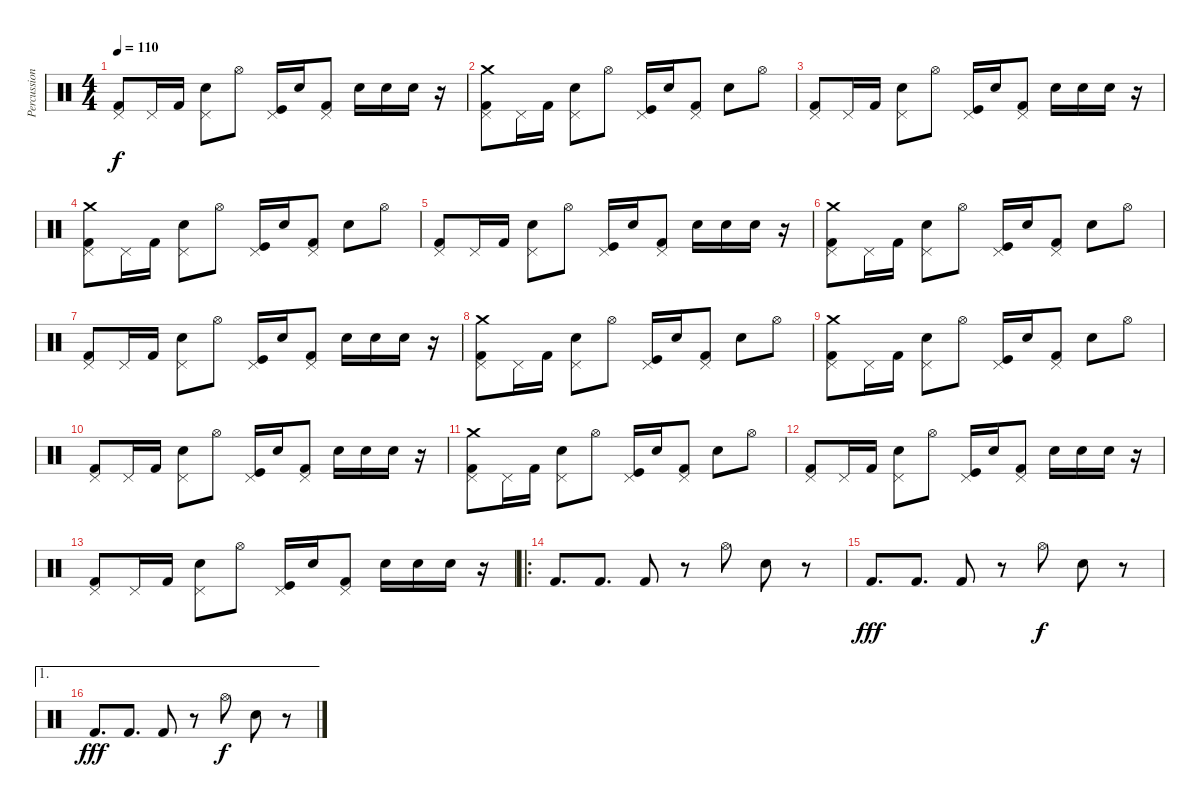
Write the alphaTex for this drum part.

\track ("Percussions" "Percussion") {instrument percussion}
\staff {score}
\articulation defaults
\ts (4 4)
\tempo 110
\clef neutral
\ks c
("Kick (hit) 2" "Pedal Hi-Hat (hit)").8{dy f} "Pedal Hi-Hat (hit)".16 "Kick (hit) 2".16 ("Electric Snare (hit)" "Pedal Hi-Hat (hit)").8 "Hi-Hat (open)".8 ("Kick (hit)" "Pedal Hi-Hat (hit)").16 "Electric Snare (hit)".16 ("Kick (hit) 2" "Pedal Hi-Hat (hit)").8 "Electric Snare (hit)".16 "Electric Snare (hit)".16 "Electric Snare (hit)".16 r.16 |
("Kick (hit) 2" "Pedal Hi-Hat (hit)" "Crash medium (hit)").8 "Pedal Hi-Hat (hit)".16 "Kick (hit) 2".16 ("Electric Snare (hit)" "Pedal Hi-Hat (hit)").8 "Hi-Hat (open)".8 ("Kick (hit)" "Pedal Hi-Hat (hit)").16 "Electric Snare (hit)".16 ("Kick (hit) 2" "Pedal Hi-Hat (hit)").8 "Electric Snare (hit)".8 "Hi-Hat (open)".8 |
("Kick (hit) 2" "Pedal Hi-Hat (hit)").8 "Pedal Hi-Hat (hit)".16 "Kick (hit) 2".16 ("Electric Snare (hit)" "Pedal Hi-Hat (hit)").8 "Hi-Hat (open)".8 ("Kick (hit)" "Pedal Hi-Hat (hit)").16 "Electric Snare (hit)".16 ("Kick (hit) 2" "Pedal Hi-Hat (hit)").8 "Electric Snare (hit)".16 "Electric Snare (hit)".16 "Electric Snare (hit)".16 r.16 |
("Kick (hit) 2" "Pedal Hi-Hat (hit)" "Crash medium (hit)").8 "Pedal Hi-Hat (hit)".16 "Kick (hit) 2".16 ("Electric Snare (hit)" "Pedal Hi-Hat (hit)").8 "Hi-Hat (open)".8 ("Kick (hit)" "Pedal Hi-Hat (hit)").16 "Electric Snare (hit)".16 ("Kick (hit) 2" "Pedal Hi-Hat (hit)").8 "Electric Snare (hit)".8 "Hi-Hat (open)".8 |
("Kick (hit) 2" "Pedal Hi-Hat (hit)").8 "Pedal Hi-Hat (hit)".16 "Kick (hit) 2".16 ("Electric Snare (hit)" "Pedal Hi-Hat (hit)").8 "Hi-Hat (open)".8 ("Kick (hit)" "Pedal Hi-Hat (hit)").16 "Electric Snare (hit)".16 ("Kick (hit) 2" "Pedal Hi-Hat (hit)").8 "Electric Snare (hit)".16 "Electric Snare (hit)".16 "Electric Snare (hit)".16 r.16 |
("Kick (hit) 2" "Pedal Hi-Hat (hit)" "Crash medium (hit)").8 "Pedal Hi-Hat (hit)".16 "Kick (hit) 2".16 ("Electric Snare (hit)" "Pedal Hi-Hat (hit)").8 "Hi-Hat (open)".8 ("Kick (hit)" "Pedal Hi-Hat (hit)").16 "Electric Snare (hit)".16 ("Kick (hit) 2" "Pedal Hi-Hat (hit)").8 "Electric Snare (hit)".8 "Hi-Hat (open)".8 |
("Kick (hit) 2" "Pedal Hi-Hat (hit)").8 "Pedal Hi-Hat (hit)".16 "Kick (hit) 2".16 ("Electric Snare (hit)" "Pedal Hi-Hat (hit)").8 "Hi-Hat (open)".8 ("Kick (hit)" "Pedal Hi-Hat (hit)").16 "Electric Snare (hit)".16 ("Kick (hit) 2" "Pedal Hi-Hat (hit)").8 "Electric Snare (hit)".16 "Electric Snare (hit)".16 "Electric Snare (hit)".16 r.16 |
("Kick (hit) 2" "Pedal Hi-Hat (hit)" "Crash medium (hit)").8 "Pedal Hi-Hat (hit)".16 "Kick (hit) 2".16 ("Electric Snare (hit)" "Pedal Hi-Hat (hit)").8 "Hi-Hat (open)".8 ("Kick (hit)" "Pedal Hi-Hat (hit)").16 "Electric Snare (hit)".16 ("Kick (hit) 2" "Pedal Hi-Hat (hit)").8 "Electric Snare (hit)".8 "Hi-Hat (open)".8 |
("Kick (hit) 2" "Pedal Hi-Hat (hit)" "Crash medium (hit)").8 "Pedal Hi-Hat (hit)".16 "Kick (hit) 2".16 ("Electric Snare (hit)" "Pedal Hi-Hat (hit)").8 "Hi-Hat (open)".8 ("Kick (hit)" "Pedal Hi-Hat (hit)").16 "Electric Snare (hit)".16 ("Kick (hit) 2" "Pedal Hi-Hat (hit)").8 "Electric Snare (hit)".8 "Hi-Hat (open)".8 |
("Kick (hit) 2" "Pedal Hi-Hat (hit)").8 "Pedal Hi-Hat (hit)".16 "Kick (hit) 2".16 ("Electric Snare (hit)" "Pedal Hi-Hat (hit)").8 "Hi-Hat (open)".8 ("Kick (hit)" "Pedal Hi-Hat (hit)").16 "Electric Snare (hit)".16 ("Kick (hit) 2" "Pedal Hi-Hat (hit)").8 "Electric Snare (hit)".16 "Electric Snare (hit)".16 "Electric Snare (hit)".16 r.16 |
("Kick (hit) 2" "Pedal Hi-Hat (hit)" "Crash medium (hit)").8 "Pedal Hi-Hat (hit)".16 "Kick (hit) 2".16 ("Electric Snare (hit)" "Pedal Hi-Hat (hit)").8 "Hi-Hat (open)".8 ("Kick (hit)" "Pedal Hi-Hat (hit)").16 "Electric Snare (hit)".16 ("Kick (hit) 2" "Pedal Hi-Hat (hit)").8 "Electric Snare (hit)".8 "Hi-Hat (open)".8 |
("Kick (hit) 2" "Pedal Hi-Hat (hit)").8 "Pedal Hi-Hat (hit)".16 "Kick (hit) 2".16 ("Electric Snare (hit)" "Pedal Hi-Hat (hit)").8 "Hi-Hat (open)".8 ("Kick (hit)" "Pedal Hi-Hat (hit)").16 "Electric Snare (hit)".16 ("Kick (hit) 2" "Pedal Hi-Hat (hit)").8 "Electric Snare (hit)".16 "Electric Snare (hit)".16 "Electric Snare (hit)".16 r.16 |
("Kick (hit) 2" "Pedal Hi-Hat (hit)").8 "Pedal Hi-Hat (hit)".16 "Kick (hit) 2".16 ("Electric Snare (hit)" "Pedal Hi-Hat (hit)").8 "Hi-Hat (open)".8 ("Kick (hit)" "Pedal Hi-Hat (hit)").16 "Electric Snare (hit)".16 ("Kick (hit) 2" "Pedal Hi-Hat (hit)").8 "Electric Snare (hit)".16 "Electric Snare (hit)".16 "Electric Snare (hit)".16 r.16 |
\ro "Kick (hit) 2".8{d} "Kick (hit) 2".8{d} "Kick (hit) 2".8
r.8 "Hi-Hat (open)".8 "Electric Snare (hit)".8 r.8 |
"Kick (hit) 2".8{d dy fff} "Kick (hit) 2".8{d} "Kick (hit) 2".8 r.8 "Hi-Hat (open)".8{dy f} "Electric Snare (hit)".8 r.8 |
\ae 1 "Kick (hit) 2".8{d dy fff} "Kick (hit) 2".8{d} "Kick (hit) 2".8
r.8 "Hi-Hat (open)".8{dy f} "Electric Snare (hit)".8 r.8
